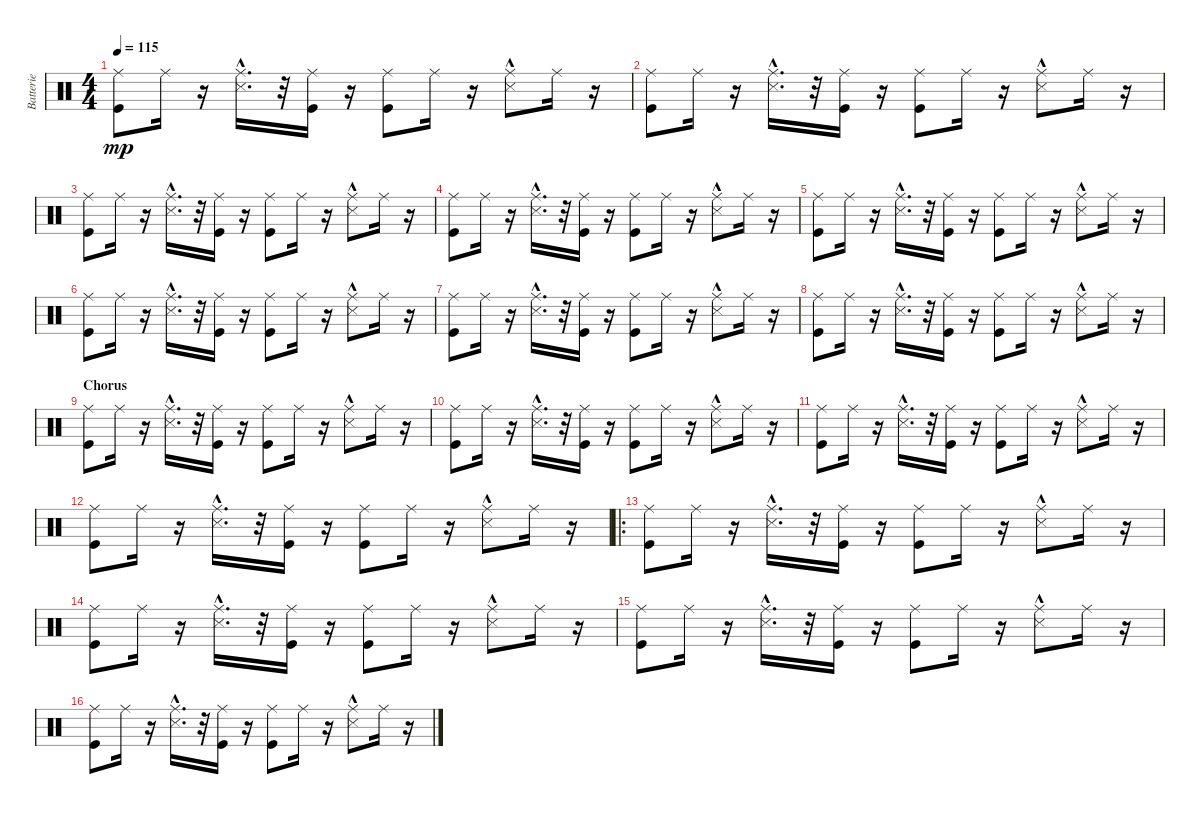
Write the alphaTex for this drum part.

\track ("Batterie" "Batterie") {instrument percussion}
\staff {score}
\articulation defaults
\ts (4 4)
\tempo 115
\clef neutral
\ks c
("Kick (hit)" "Ride (middle)").8{dy mp} "Ride (middle)".16 r.16 ("Snare (side stick) 3"{hac} "Ride (middle)").16{d} r.32 ("Ride (middle)" "Kick (hit)").16 r.16 ("Ride (middle)" "Kick (hit)").8 "Ride (middle)".16 r.16 ("Snare (side stick) 3"{hac} "Ride (middle)").8 "Ride (middle)".16 r.16 |
("Kick (hit)" "Ride (middle)").8 "Ride (middle)".16 r.16 ("Snare (side stick) 3"{hac} "Ride (middle)").16{d} r.32 ("Ride (middle)" "Kick (hit)").16 r.16 ("Ride (middle)" "Kick (hit)").8 "Ride (middle)".16 r.16 ("Snare (side stick) 3"{hac} "Ride (middle)").8 "Ride (middle)".16 r.16 |
("Kick (hit)" "Ride (middle)").8 "Ride (middle)".16 r.16 ("Snare (side stick) 3"{hac} "Ride (middle)").16{d} r.32 ("Ride (middle)" "Kick (hit)").16 r.16 ("Ride (middle)" "Kick (hit)").8 "Ride (middle)".16 r.16 ("Snare (side stick) 3"{hac} "Ride (middle)").8 "Ride (middle)".16 r.16 |
("Kick (hit)" "Ride (middle)").8 "Ride (middle)".16 r.16 ("Snare (side stick) 3"{hac} "Ride (middle)").16{d} r.32 ("Ride (middle)" "Kick (hit)").16 r.16 ("Ride (middle)" "Kick (hit)").8 "Ride (middle)".16 r.16 ("Snare (side stick) 3"{hac} "Ride (middle)").8 "Ride (middle)".16 r.16 |
("Kick (hit)" "Ride (middle)").8 "Ride (middle)".16 r.16 ("Snare (side stick) 3"{hac} "Ride (middle)").16{d} r.32 ("Ride (middle)" "Kick (hit)").16 r.16 ("Ride (middle)" "Kick (hit)").8 "Ride (middle)".16 r.16 ("Snare (side stick) 3"{hac} "Ride (middle)").8 "Ride (middle)".16 r.16 |
("Kick (hit)" "Ride (middle)").8 "Ride (middle)".16 r.16 ("Snare (side stick) 3"{hac} "Ride (middle)").16{d} r.32 ("Ride (middle)" "Kick (hit)").16 r.16 ("Ride (middle)" "Kick (hit)").8 "Ride (middle)".16 r.16 ("Snare (side stick) 3"{hac} "Ride (middle)").8 "Ride (middle)".16 r.16 |
("Kick (hit)" "Ride (middle)").8 "Ride (middle)".16 r.16 ("Snare (side stick) 3"{hac} "Ride (middle)").16{d} r.32 ("Ride (middle)" "Kick (hit)").16 r.16 ("Ride (middle)" "Kick (hit)").8 "Ride (middle)".16 r.16 ("Snare (side stick) 3"{hac} "Ride (middle)").8 "Ride (middle)".16 r.16 |
("Kick (hit)" "Ride (middle)").8 "Ride (middle)".16 r.16 ("Snare (side stick) 3"{hac} "Ride (middle)").16{d} r.32 ("Ride (middle)" "Kick (hit)").16 r.16 ("Ride (middle)" "Kick (hit)").8 "Ride (middle)".16 r.16 ("Snare (side stick) 3"{hac} "Ride (middle)").8 "Ride (middle)".16 r.16 |
\section ("" "Chorus")
("Kick (hit)" "Ride (middle)").8 "Ride (middle)".16 r.16 ("Snare (side stick) 3"{hac} "Ride (middle)").16{d} r.32 ("Ride (middle)" "Kick (hit)").16 r.16 ("Ride (middle)" "Kick (hit)").8 "Ride (middle)".16 r.16 ("Snare (side stick) 3"{hac} "Ride (middle)").8 "Ride (middle)".16 r.16 |
("Kick (hit)" "Ride (middle)").8 "Ride (middle)".16 r.16 ("Snare (side stick) 3"{hac} "Ride (middle)").16{d} r.32 ("Ride (middle)" "Kick (hit)").16 r.16 ("Ride (middle)" "Kick (hit)").8 "Ride (middle)".16 r.16 ("Snare (side stick) 3"{hac} "Ride (middle)").8 "Ride (middle)".16 r.16 |
("Kick (hit)" "Ride (middle)").8 "Ride (middle)".16 r.16 ("Snare (side stick) 3"{hac} "Ride (middle)").16{d} r.32 ("Ride (middle)" "Kick (hit)").16 r.16 ("Ride (middle)" "Kick (hit)").8 "Ride (middle)".16 r.16 ("Snare (side stick) 3"{hac} "Ride (middle)").8 "Ride (middle)".16 r.16 |
("Kick (hit)" "Ride (middle)").8 "Ride (middle)".16 r.16 ("Snare (side stick) 3"{hac} "Ride (middle)").16{d} r.32 ("Ride (middle)" "Kick (hit)").16 r.16 ("Ride (middle)" "Kick (hit)").8 "Ride (middle)".16 r.16 ("Snare (side stick) 3"{hac} "Ride (middle)").8 "Ride (middle)".16 r.16 |
\ro
("Kick (hit)" "Ride (middle)").8 "Ride (middle)".16 r.16 ("Snare (side stick) 3"{hac} "Ride (middle)").16{d} r.32 ("Ride (middle)" "Kick (hit)").16 r.16 ("Ride (middle)" "Kick (hit)").8 "Ride (middle)".16 r.16 ("Snare (side stick) 3"{hac} "Ride (middle)").8 "Ride (middle)".16 r.16 |
("Kick (hit)" "Ride (middle)").8 "Ride (middle)".16 r.16 ("Snare (side stick) 3"{hac} "Ride (middle)").16{d} r.32 ("Ride (middle)" "Kick (hit)").16 r.16 ("Ride (middle)" "Kick (hit)").8 "Ride (middle)".16 r.16 ("Snare (side stick) 3"{hac} "Ride (middle)").8 "Ride (middle)".16 r.16 |
("Kick (hit)" "Ride (middle)").8 "Ride (middle)".16 r.16 ("Snare (side stick) 3"{hac} "Ride (middle)").16{d} r.32 ("Ride (middle)" "Kick (hit)").16 r.16 ("Ride (middle)" "Kick (hit)").8 "Ride (middle)".16 r.16 ("Snare (side stick) 3"{hac} "Ride (middle)").8 "Ride (middle)".16 r.16 |
("Kick (hit)" "Ride (middle)").8 "Ride (middle)".16 r.16 ("Snare (side stick) 3"{hac} "Ride (middle)").16{d} r.32 ("Ride (middle)" "Kick (hit)").16 r.16 ("Ride (middle)" "Kick (hit)").8 "Ride (middle)".16 r.16 ("Snare (side stick) 3"{hac} "Ride (middle)").8 "Ride (middle)".16 r.16
